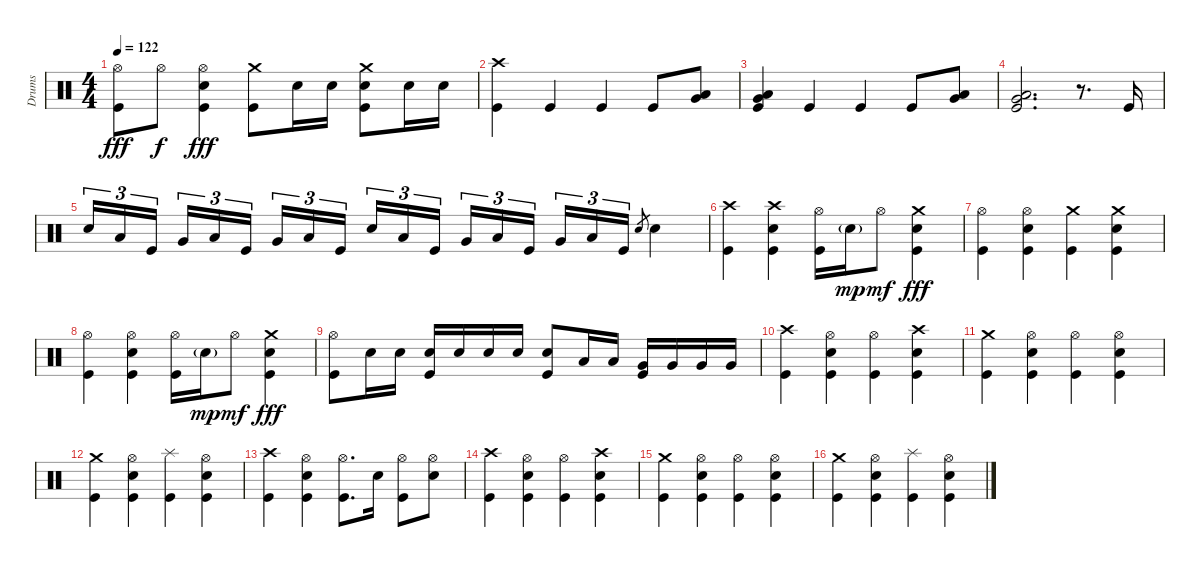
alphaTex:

\track ("Drums" "Drums") {instrument percussion}
\staff {score}
\articulation defaults
\ts (4 4)
\tempo 122
\clef neutral
\ks c
("Hi-Hat (open)" "Kick (hit)").8{dy fff} "Hi-Hat (open)".8{dy f} ("Hi-Hat (open)" "Snare (hit) 2" "Kick (hit)").4{dy fff} ("Crash medium (hit)" "Kick (hit)").8 "Snare (hit) 2".16 "Snare (hit) 2".16 ("Crash medium (hit)" "Snare (hit) 2" "Kick (hit)").8 "Snare (hit) 2".16 "Snare (hit) 2".16 |
("Crash high (hit)" "Kick (hit)").4 "Kick (hit)".4 "Kick (hit)".4 "Kick (hit)".8 ("Low Tom (hit)" "Very Low Tom (hit)").8 |
("Low Tom (hit)" "Very Low Tom (hit)" "Kick (hit)").4 "Kick (hit)".4 "Kick (hit)".4 "Kick (hit)".8 ("Low Tom (hit)" "Very Low Tom (hit)").8 |
("Low Tom (hit)" "Very Low Tom (hit)" "Kick (hit)").2{d} r.8{d} "Kick (hit)".16 |
"Snare (hit) 2".16{tu (3 2)} "Low Tom (hit)".16{tu (3 2)} "Kick (hit)".16{tu (3 2)} "Very Low Tom (hit)".16{tu (3 2)} "Low Tom (hit)".16{tu (3 2)} "Kick (hit)".16{tu (3 2)} "Very Low Tom (hit)".16{tu (3 2)} "Low Tom (hit)".16{tu (3 2)} "Kick (hit)".16{tu (3 2)} "Snare (hit) 2".16{tu (3 2)} "Low Tom (hit)".16{tu (3 2)} "Kick (hit)".16{tu (3 2)} "Very Low Tom (hit)".16{tu (3 2)} "Low Tom (hit)".16{tu (3 2)} "Kick (hit)".16{tu (3 2)} "Very Low Tom (hit)".16{tu (3 2)} "Low Tom (hit)".16{tu (3 2)} "Kick (hit)".16{tu (3 2)} "Snare (hit) 2".8{gr} "Snare (hit) 2".4 |
("Crash high (hit)" "Kick (hit)").4 ("Crash high (hit)" "Snare (hit) 2" "Kick (hit)").4 ("Hi-Hat (open)" "Kick (hit)").16 "Snare (hit) 2"{g}.16{dy mp} "Hi-Hat (open)".8{dy mf} ("Crash medium (hit)" "Snare (hit) 2" "Kick (hit)").4{dy fff} |
("Hi-Hat (open)" "Kick (hit)").4 ("Hi-Hat (open)" "Snare (hit) 2" "Kick (hit)").4 ("Crash medium (hit)" "Kick (hit)").4 ("Crash medium (hit)" "Snare (hit) 2" "Kick (hit)").4 |
("Hi-Hat (open)" "Kick (hit)").4 ("Hi-Hat (open)" "Snare (hit) 2" "Kick (hit)").4 ("Hi-Hat (open)" "Kick (hit)").16 "Snare (hit) 2"{g}.16{dy mp} "Hi-Hat (open)".8{dy mf} ("Crash medium (hit)" "Snare (hit) 2" "Kick (hit)").4{dy fff} |
("Hi-Hat (open)" "Kick (hit)").8 "Snare (hit) 2".16 "Snare (hit) 2".16 ("Snare (hit) 2" "Kick (hit)").16 "Snare (hit) 2".16 "Snare (hit) 2".16 "Snare (hit) 2".16 ("Snare (hit) 2" "Kick (hit)").8 "Low Tom (hit)".16 "Low Tom (hit)".16 ("Very Low Tom (hit)" "Kick (hit)").16 "Very Low Tom (hit)".16 "Very Low Tom (hit)".16 "Very Low Tom (hit)".16 |
("Crash high (hit)" "Kick (hit)").4 ("Hi-Hat (open)" "Snare (hit) 2" "Kick (hit)").4 ("Hi-Hat (open)" "Kick (hit)").4 ("Crash high (hit)" "Snare (hit) 2" "Kick (hit)").4 |
("Crash medium (hit)" "Kick (hit)").4 ("Hi-Hat (open)" "Snare (hit) 2" "Kick (hit)").4 ("Hi-Hat (open)" "Kick (hit)").4 ("Hi-Hat (open)" "Snare (hit) 2" "Kick (hit)").4 |
("Crash medium (hit)" "Kick (hit)").4 ("Hi-Hat (open)" "Snare (hit) 2" "Kick (hit)").4 ("Splash (hit)" "Kick (hit)").4 ("Hi-Hat (open)" "Snare (hit) 2" "Kick (hit)").4 |
("Crash high (hit)" "Kick (hit)").4 ("Hi-Hat (open)" "Snare (hit) 2" "Kick (hit)").4 ("Hi-Hat (open)" "Kick (hit)").8{d} "Snare (hit) 2".16 ("Hi-Hat (open)" "Kick (hit)").8 ("Hi-Hat (open)" "Snare (hit) 2").8 |
("Crash high (hit)" "Kick (hit)").4 ("Hi-Hat (open)" "Snare (hit) 2" "Kick (hit)").4 ("Hi-Hat (open)" "Kick (hit)").4 ("Crash high (hit)" "Snare (hit) 2" "Kick (hit)").4 |
("Crash medium (hit)" "Kick (hit)").4 ("Hi-Hat (open)" "Snare (hit) 2" "Kick (hit)").4 ("Hi-Hat (open)" "Kick (hit)").4 ("Hi-Hat (open)" "Snare (hit) 2" "Kick (hit)").4 |
("Crash medium (hit)" "Kick (hit)").4 ("Hi-Hat (open)" "Snare (hit) 2" "Kick (hit)").4 ("Splash (hit)" "Kick (hit)").4 ("Hi-Hat (open)" "Snare (hit) 2" "Kick (hit)").4
